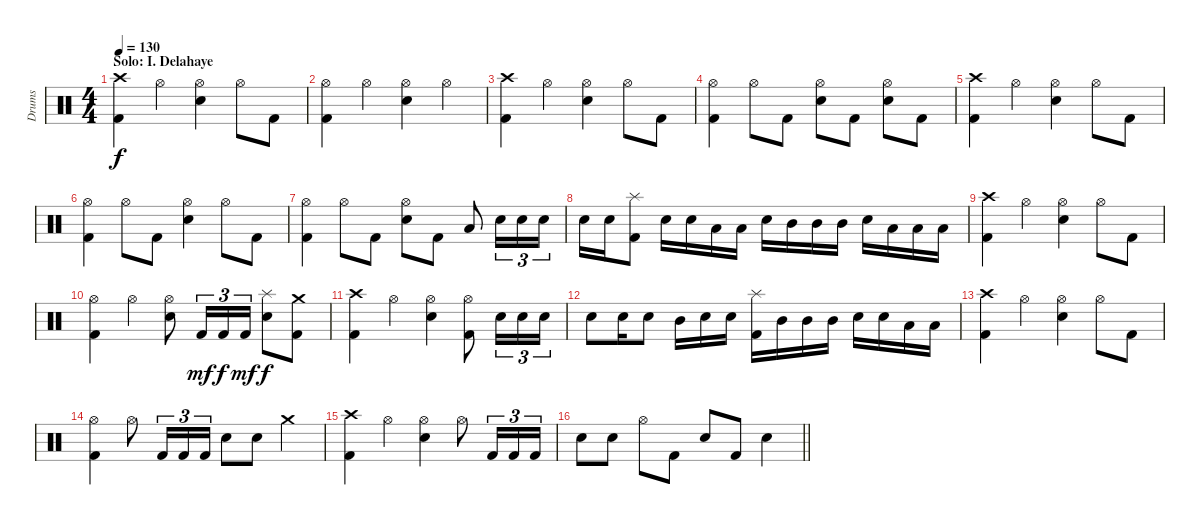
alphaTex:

\track ("Drums" "Drums") {instrument percussion}
\staff {score}
\articulation defaults
\ts (4 4)
\section ("" "Solo: I. Delahaye")
\tempo 130
\clef neutral
\ks c
("Crash high (hit)" "Kick (hit) 2").4{dy f} "Hi-Hat (open)".4 ("Hi-Hat (open)" "Snare (hit) 2").4 "Hi-Hat (open)".8 "Kick (hit) 2".8 |
("Hi-Hat (open)" "Kick (hit) 2").4 "Hi-Hat (open)".4 ("Hi-Hat (open)" "Snare (hit) 2").4 "Hi-Hat (open)".4 |
("Crash high (hit)" "Kick (hit) 2").4 "Hi-Hat (open)".4 ("Hi-Hat (open)" "Snare (hit) 2").4 "Hi-Hat (open)".8 "Kick (hit) 2".8 |
("Hi-Hat (open)" "Kick (hit) 2").4 "Hi-Hat (open)".8 "Kick (hit) 2".8 ("Hi-Hat (open)" "Snare (hit) 2").8 "Kick (hit) 2".8 ("Hi-Hat (open)" "Snare (hit) 2").8 "Kick (hit) 2".8 |
("Crash high (hit)" "Kick (hit) 2").4 "Hi-Hat (open)".4 ("Hi-Hat (open)" "Snare (hit) 2").4 "Hi-Hat (open)".8 "Kick (hit) 2".8 |
("Hi-Hat (open)" "Kick (hit) 2").4 "Hi-Hat (open)".8 "Kick (hit) 2".8 ("Hi-Hat (open)" "Snare (hit) 2").4 "Hi-Hat (open)".8 "Kick (hit) 2".8 |
("Hi-Hat (open)" "Kick (hit) 2").4 "Hi-Hat (open)".8 "Kick (hit) 2".8 ("Hi-Hat (open)" "Snare (hit) 2").8 "Kick (hit) 2".8 "Low Tom (hit)".8 "Snare (hit) 2".16{tu (3 2)} "Snare (hit) 2".16{tu (3 2)} "Snare (hit) 2".16{tu (3 2)} |
"Snare (hit) 2".16 "Snare (hit) 2".16 ("Splash (hit)" "Kick (hit) 2").8 "Snare (hit) 2".16 "Snare (hit) 2".16 "Low Tom (hit)".16 "Low Tom (hit)".16 "Snare (hit) 2".16 "Mid Tom (hit)".16 "Mid Tom (hit)".16 "Mid Tom (hit)".16 "Snare (hit) 2".16 "Low Tom (hit)".16 "Low Tom (hit)".16 "Low Tom (hit)".16 |
("Crash high (hit)" "Kick (hit) 2").4 "Hi-Hat (open)".4 ("Hi-Hat (open)" "Snare (hit) 2").4 "Hi-Hat (open)".8 "Kick (hit) 2".8 |
("Hi-Hat (open)" "Kick (hit) 2").4 "Hi-Hat (open)".4 ("Hi-Hat (open)" "Snare (hit) 2").8 "Kick (hit) 2".16{tu (3 2) dy mf} "Kick (hit) 2".16{tu (3 2) dy f} "Kick (hit) 2".16{tu (3 2) dy mf} ("Splash (hit)" "Snare (hit) 2").8{dy f} ("Crash medium (hit)" "Kick (hit) 2").8 |
("Crash high (hit)" "Kick (hit) 2").4 "Hi-Hat (open)".4 ("Hi-Hat (open)" "Snare (hit) 2").4 ("Hi-Hat (open)" "Kick (hit) 2").8 "Snare (hit) 2".16{tu (3 2)} "Snare (hit) 2".16{tu (3 2)} "Snare (hit) 2".16{tu (3 2)} |
"Snare (hit) 2".8 "Snare (hit) 2".16 "Snare (hit) 2".8 "Mid Tom (hit)".16 "Snare (hit) 2".16 "Snare (hit) 2".16 ("Splash (hit)" "Kick (hit) 2").16 "Mid Tom (hit)".16 "Mid Tom (hit)".16 "Mid Tom (hit)".16 "Snare (hit) 2".16 "Snare (hit) 2".16 "Low Tom (hit)".16 "Low Tom (hit)".16 |
("Crash high (hit)" "Kick (hit) 2").4 "Hi-Hat (open)".4 ("Hi-Hat (open)" "Snare (hit) 2").4 "Hi-Hat (open)".8 "Kick (hit) 2".8 |
("Hi-Hat (open)" "Kick (hit) 2").4 "Hi-Hat (open)".8 "Kick (hit) 2".16{tu (3 2)} "Kick (hit) 2".16{tu (3 2)} "Kick (hit) 2".16{tu (3 2)} "Snare (hit) 2".8 "Snare (hit) 2".8 "Crash medium (hit)".4 |
("Crash high (hit)" "Kick (hit) 2").4 "Hi-Hat (open)".4 ("Hi-Hat (open)" "Snare (hit) 2").4 "Hi-Hat (open)".8 "Kick (hit) 2".16{tu (3 2)} "Kick (hit) 2".16{tu (3 2)} "Kick (hit) 2".16{tu (3 2)} |
\barLineRight lightlight "Snare (hit) 2".8 "Snare (hit) 2".8 "Hi-Hat (open)".8 "Kick (hit) 2".8 "Snare (hit) 2".8 "Kick (hit) 2".8 "Snare (hit) 2".4
